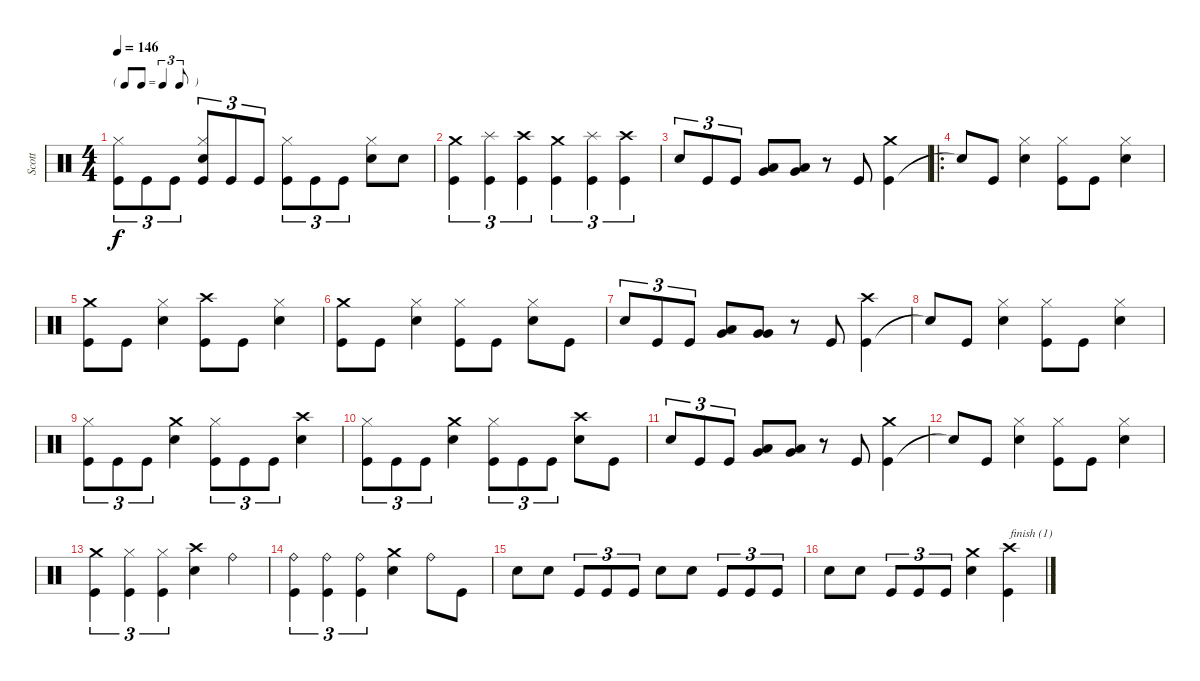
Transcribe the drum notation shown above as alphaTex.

\track ("Scott" "Scott") {instrument percussion}
\staff {score}
\articulation defaults
\ts (4 4)
\tf triplet8th
\tempo 146
\clef neutral
\ks c
("Kick (hit)" "Hi-Hat (closed)").8{tu (3 2) dy f} "Kick (hit)".8{tu (3 2)} "Kick (hit)".8{tu (3 2)} ("Kick (hit)" "Snare (hit) 2" "Hi-Hat (closed)").8{tu (3 2)} "Kick (hit)".8{tu (3 2)} "Kick (hit)".8{tu (3 2)} ("Kick (hit)" "Hi-Hat (closed)").8{tu (3 2)} "Kick (hit)".8{tu (3 2)} "Kick (hit)".8{tu (3 2)} ("Snare (hit) 2" "Hi-Hat (closed)").8 "Snare (hit) 2".8 |
("Kick (hit)" "Crash medium (hit)").4{tu (3 2)} ("Kick (hit)" "Splash (hit)").4{tu (3 2)} ("Kick (hit)" "Crash high (hit)").4{tu (3 2)} ("Kick (hit)" "Crash medium (hit)").4{tu (3 2)} ("Kick (hit)" "Splash (hit)").4{tu (3 2)} ("Kick (hit)" "Crash high (hit)").4{tu (3 2)} |
"Snare (hit) 2".8{tu (3 2)} "Kick (hit)".8{tu (3 2)} "Kick (hit)".8{tu (3 2)} ("Low Tom (hit)" "Very Low Tom (hit)").8 ("Low Tom (hit)" "Very Low Tom (hit)").8 r.8 "Kick (hit)".8 ("Kick (hit)" "Crash medium (hit)").4 |
\ro "Snare (hit)"{t}.8 "Kick (hit)".8
("Snare (hit) 2" "Hi-Hat (closed)").4 ("Kick (hit)" "Hi-Hat (closed)").8 "Kick (hit)".8 ("Snare (hit) 2" "Hi-Hat (closed)").4 |
("Kick (hit)" "Crash medium (hit)").8 "Kick (hit)".8 ("Snare (hit) 2" "Hi-Hat (closed)").4 ("Kick (hit)" "Crash high (hit)").8 "Kick (hit)".8 ("Snare (hit) 2" "Hi-Hat (closed)").4 |
("Kick (hit)" "Crash medium (hit)").8 "Kick (hit)".8 ("Snare (hit) 2" "Hi-Hat (closed)").4 ("Kick (hit)" "Hi-Hat (closed)").8 "Kick (hit)".8 ("Snare (hit) 2" "Hi-Hat (closed)").8 "Kick (hit)".8 |
"Snare (hit) 2".8{tu (3 2)} "Kick (hit)".8{tu (3 2)} "Kick (hit)".8{tu (3 2)} ("Low Tom (hit)" "Very Low Tom (hit)").8 ("Very Low Tom (hit)" "Very Low Tom (hit)").8 r.8 "Kick (hit)".8 ("Kick (hit)" "Crash high (hit)").4 |
"Snare (hit)"{t}.8 "Kick (hit)".8 ("Snare (hit) 2" "Hi-Hat (closed)").4 ("Kick (hit)" "Hi-Hat (closed)").8 "Kick (hit)".8 ("Snare (hit) 2" "Hi-Hat (closed)").4 |
("Kick (hit)" "Hi-Hat (closed)").8{tu (3 2)} "Kick (hit)".8{tu (3 2)} "Kick (hit)".8{tu (3 2)} ("Snare (hit) 2" "Crash medium (hit)").4 ("Kick (hit)" "Hi-Hat (closed)").8{tu (3 2)} "Kick (hit)".8{tu (3 2)} "Kick (hit)".8{tu (3 2)} ("Snare (hit) 2" "Crash high (hit)").4 |
("Kick (hit)" "Hi-Hat (closed)").8{tu (3 2)} "Kick (hit)".8{tu (3 2)} "Kick (hit)".8{tu (3 2)} ("Snare (hit) 2" "Crash medium (hit)").4 ("Kick (hit)" "Hi-Hat (closed)").8{tu (3 2)} "Kick (hit)".8{tu (3 2)} "Kick (hit)".8{tu (3 2)} ("Snare (hit) 2" "Crash high (hit)").8 "Kick (hit)".8 |
"Snare (hit) 2".8{tu (3 2)} "Kick (hit)".8{tu (3 2)} "Kick (hit)".8{tu (3 2)} ("Low Tom (hit)" "Very Low Tom (hit)").8 ("Low Tom (hit)" "Very Low Tom (hit)").8 r.8 "Kick (hit)".8 ("Kick (hit)" "Crash medium (hit)").4 |
"Snare (hit)"{t}.8 "Kick (hit)".8 ("Snare (hit) 2" "Hi-Hat (closed)").4 ("Kick (hit)" "Hi-Hat (closed)").8 "Kick (hit)".8 ("Snare (hit) 2" "Hi-Hat (closed)").4 |
("Kick (hit)" "Crash medium (hit)").4{tu (3 2)} ("Kick (hit)" "Hi-Hat (closed)").4{tu (3 2)} ("Kick (hit)" "Hi-Hat (closed)").4{tu (3 2)} ("Snare (hit) 2" "Crash high (hit)").4 "Ride (bell)".4 |
("Kick (hit)" "Ride (bell)").4{tu (3 2)} ("Kick (hit)" "Ride (bell)").4{tu (3 2)} ("Kick (hit)" "Ride (bell)").4{tu (3 2)} ("Snare (hit) 2" "Crash medium (hit)").4 "Ride (bell)".8 "Kick (hit)".8 |
"Snare (hit) 2".8 "Snare (hit) 2".8 "Kick (hit)".8{tu (3 2)} "Kick (hit)".8{tu (3 2)} "Kick (hit)".8{tu (3 2)} "Snare (hit) 2".8 "Snare (hit) 2".8 "Kick (hit)".8{tu (3 2)} "Kick (hit)".8{tu (3 2)} "Kick (hit)".8{tu (3 2)} |
"Snare (hit) 2".8 "Snare (hit) 2".8 "Kick (hit)".8{tu (3 2)} "Kick (hit)".8{tu (3 2)} "Kick (hit)".8{tu (3 2)} ("Snare (hit) 2" "Crash medium (hit)").4 ("Kick (hit)" "Crash high (hit)").4{txt "finish (1)"}
